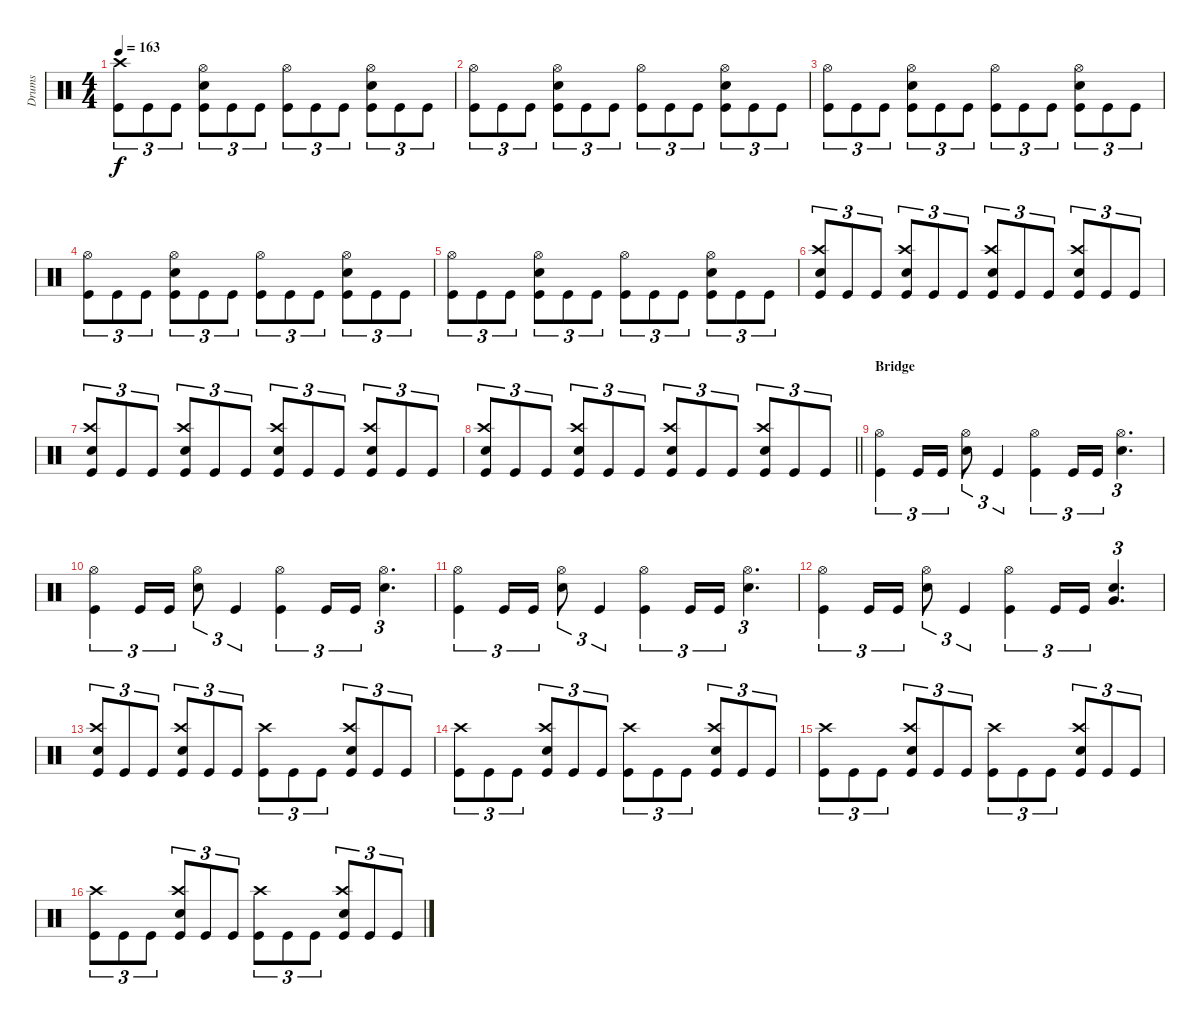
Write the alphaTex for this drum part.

\track ("Drums" "Drums") {instrument percussion}
\staff {score}
\articulation defaults
\ts (4 4)
\tempo 163
\clef neutral
\ks c
("Kick (hit)" "Crash high (hit)").8{tu (3 2) dy f} "Kick (hit)".8{tu (3 2)} "Kick (hit)".8{tu (3 2)} ("Kick (hit)" "Snare (hit) 2" "Hi-Hat (open)").8{tu (3 2)} "Kick (hit)".8{tu (3 2)} "Kick (hit)".8{tu (3 2)} ("Kick (hit)" "Hi-Hat (open)").8{tu (3 2)} "Kick (hit)".8{tu (3 2)} "Kick (hit)".8{tu (3 2)} ("Snare (hit) 2" "Kick (hit)" "Hi-Hat (open)").8{tu (3 2)} "Kick (hit)".8{tu (3 2)} "Kick (hit)".8{tu (3 2)} |
("Kick (hit)" "Hi-Hat (open)").8{tu (3 2)} "Kick (hit)".8{tu (3 2)} "Kick (hit)".8{tu (3 2)} ("Snare (hit) 2" "Kick (hit)" "Hi-Hat (open)").8{tu (3 2)} "Kick (hit)".8{tu (3 2)} "Kick (hit)".8{tu (3 2)} ("Kick (hit)" "Hi-Hat (open)").8{tu (3 2)} "Kick (hit)".8{tu (3 2)} "Kick (hit)".8{tu (3 2)} ("Snare (hit) 2" "Kick (hit)" "Hi-Hat (open)").8{tu (3 2)} "Kick (hit)".8{tu (3 2)} "Kick (hit)".8{tu (3 2)} |
("Kick (hit)" "Hi-Hat (open)").8{tu (3 2)} "Kick (hit)".8{tu (3 2)} "Kick (hit)".8{tu (3 2)} ("Snare (hit) 2" "Kick (hit)" "Hi-Hat (open)").8{tu (3 2)} "Kick (hit)".8{tu (3 2)} "Kick (hit)".8{tu (3 2)} ("Kick (hit)" "Hi-Hat (open)").8{tu (3 2)} "Kick (hit)".8{tu (3 2)} "Kick (hit)".8{tu (3 2)} ("Snare (hit) 2" "Kick (hit)" "Hi-Hat (open)").8{tu (3 2)} "Kick (hit)".8{tu (3 2)} "Kick (hit)".8{tu (3 2)} |
("Kick (hit)" "Hi-Hat (open)").8{tu (3 2)} "Kick (hit)".8{tu (3 2)} "Kick (hit)".8{tu (3 2)} ("Snare (hit) 2" "Kick (hit)" "Hi-Hat (open)").8{tu (3 2)} "Kick (hit)".8{tu (3 2)} "Kick (hit)".8{tu (3 2)} ("Kick (hit)" "Hi-Hat (open)").8{tu (3 2)} "Kick (hit)".8{tu (3 2)} "Kick (hit)".8{tu (3 2)} ("Snare (hit) 2" "Kick (hit)" "Hi-Hat (open)").8{tu (3 2)} "Kick (hit)".8{tu (3 2)} "Kick (hit)".8{tu (3 2)} |
("Kick (hit)" "Hi-Hat (open)").8{tu (3 2)} "Kick (hit)".8{tu (3 2)} "Kick (hit)".8{tu (3 2)} ("Snare (hit) 2" "Kick (hit)" "Hi-Hat (open)").8{tu (3 2)} "Kick (hit)".8{tu (3 2)} "Kick (hit)".8{tu (3 2)} ("Kick (hit)" "Hi-Hat (open)").8{tu (3 2)} "Kick (hit)".8{tu (3 2)} "Kick (hit)".8{tu (3 2)} ("Snare (hit) 2" "Kick (hit)" "Hi-Hat (open)").8{tu (3 2)} "Kick (hit)".8{tu (3 2)} "Kick (hit)".8{tu (3 2)} |
("Snare (hit) 2" "Kick (hit)" "Crash high (hit)").8{tu (3 2)} "Kick (hit)".8{tu (3 2)} "Kick (hit)".8{tu (3 2)} ("Snare (hit) 2" "Kick (hit)" "Crash high (hit)").8{tu (3 2)} "Kick (hit)".8{tu (3 2)} "Kick (hit)".8{tu (3 2)} ("Snare (hit) 2" "Kick (hit)" "Crash high (hit)").8{tu (3 2)} "Kick (hit)".8{tu (3 2)} "Kick (hit)".8{tu (3 2)} ("Snare (hit) 2" "Kick (hit)" "Crash high (hit)").8{tu (3 2)} "Kick (hit)".8{tu (3 2)} "Kick (hit)".8{tu (3 2)} |
("Snare (hit) 2" "Kick (hit)" "Crash high (hit)").8{tu (3 2)} "Kick (hit)".8{tu (3 2)} "Kick (hit)".8{tu (3 2)} ("Snare (hit) 2" "Kick (hit)" "Crash high (hit)").8{tu (3 2)} "Kick (hit)".8{tu (3 2)} "Kick (hit)".8{tu (3 2)} ("Snare (hit) 2" "Kick (hit)" "Crash high (hit)").8{tu (3 2)} "Kick (hit)".8{tu (3 2)} "Kick (hit)".8{tu (3 2)} ("Snare (hit) 2" "Kick (hit)" "Crash high (hit)").8{tu (3 2)} "Kick (hit)".8{tu (3 2)} "Kick (hit)".8{tu (3 2)} |
\barLineRight lightlight
("Snare (hit) 2" "Kick (hit)" "Crash high (hit)").8{tu (3 2)} "Kick (hit)".8{tu (3 2)} "Kick (hit)".8{tu (3 2)} ("Snare (hit) 2" "Kick (hit)" "Crash high (hit)").8{tu (3 2)} "Kick (hit)".8{tu (3 2)} "Kick (hit)".8{tu (3 2)} ("Snare (hit) 2" "Kick (hit)" "Crash high (hit)").8{tu (3 2)} "Kick (hit)".8{tu (3 2)} "Kick (hit)".8{tu (3 2)} ("Snare (hit) 2" "Kick (hit)" "Crash high (hit)").8{tu (3 2)} "Kick (hit)".8{tu (3 2)} "Kick (hit)".8{tu (3 2)} |
\section ("" "Bridge")
("Kick (hit)" "Hi-Hat (open)").4{tu (3 2)} "Kick (hit)".16{tu (3 2)} "Kick (hit)".16{tu (3 2)} ("Snare (hit) 2" "Hi-Hat (open)").8{tu (3 2)} "Kick (hit)".4{tu (3 2)} ("Kick (hit)" "Hi-Hat (open)").4{tu (3 2)} "Kick (hit)".16{tu (3 2)} "Kick (hit)".16{tu (3 2)} ("Snare (hit) 2" "Hi-Hat (open)").4{d tu (3 2)} |
("Kick (hit)" "Hi-Hat (open)").4{tu (3 2)} "Kick (hit)".16{tu (3 2)} "Kick (hit)".16{tu (3 2)} ("Snare (hit) 2" "Hi-Hat (open)").8{tu (3 2)} "Kick (hit)".4{tu (3 2)} ("Kick (hit)" "Hi-Hat (open)").4{tu (3 2)} "Kick (hit)".16{tu (3 2)} "Kick (hit)".16{tu (3 2)} ("Snare (hit) 2" "Hi-Hat (open)").4{d tu (3 2)} |
("Kick (hit)" "Hi-Hat (open)").4{tu (3 2)} "Kick (hit)".16{tu (3 2)} "Kick (hit)".16{tu (3 2)} ("Snare (hit) 2" "Hi-Hat (open)").8{tu (3 2)} "Kick (hit)".4{tu (3 2)} ("Kick (hit)" "Hi-Hat (open)").4{tu (3 2)} "Kick (hit)".16{tu (3 2)} "Kick (hit)".16{tu (3 2)} ("Snare (hit) 2" "Hi-Hat (open)").4{d tu (3 2)} |
("Kick (hit)" "Hi-Hat (open)").4{tu (3 2)} "Kick (hit)".16{tu (3 2)} "Kick (hit)".16{tu (3 2)} ("Snare (hit) 2" "Hi-Hat (open)").8{tu (3 2)} "Kick (hit)".4{tu (3 2)} ("Kick (hit)" "Hi-Hat (open)").4{tu (3 2)} "Kick (hit)".16{tu (3 2)} "Kick (hit)".16{tu (3 2)} ("Snare (hit) 2" "Very Low Tom (hit)").4{d tu (3 2)} |
("Snare (hit) 2" "Kick (hit)" "Crash high (hit)").8{tu (3 2)} "Kick (hit)".8{tu (3 2)} "Kick (hit)".8{tu (3 2)} ("Snare (hit) 2" "Kick (hit)" "Crash high (hit)").8{tu (3 2)} "Kick (hit)".8{tu (3 2)} "Kick (hit)".8{tu (3 2)} ("Kick (hit)" "Crash high (hit)").8{tu (3 2)} "Kick (hit)".8{tu (3 2)} "Kick (hit)".8{tu (3 2)} ("Snare (hit) 2" "Kick (hit)" "Crash high (hit)").8{tu (3 2)} "Kick (hit)".8{tu (3 2)} "Kick (hit)".8{tu (3 2)} |
("Kick (hit)" "Crash high (hit)").8{tu (3 2)} "Kick (hit)".8{tu (3 2)} "Kick (hit)".8{tu (3 2)} ("Snare (hit) 2" "Kick (hit)" "Crash high (hit)").8{tu (3 2)} "Kick (hit)".8{tu (3 2)} "Kick (hit)".8{tu (3 2)} ("Kick (hit)" "Crash high (hit)").8{tu (3 2)} "Kick (hit)".8{tu (3 2)} "Kick (hit)".8{tu (3 2)} ("Snare (hit) 2" "Kick (hit)" "Crash high (hit)").8{tu (3 2)} "Kick (hit)".8{tu (3 2)} "Kick (hit)".8{tu (3 2)} |
("Kick (hit)" "Crash high (hit)").8{tu (3 2)} "Kick (hit)".8{tu (3 2)} "Kick (hit)".8{tu (3 2)} ("Snare (hit) 2" "Kick (hit)" "Crash high (hit)").8{tu (3 2)} "Kick (hit)".8{tu (3 2)} "Kick (hit)".8{tu (3 2)} ("Kick (hit)" "Crash high (hit)").8{tu (3 2)} "Kick (hit)".8{tu (3 2)} "Kick (hit)".8{tu (3 2)} ("Snare (hit) 2" "Kick (hit)" "Crash high (hit)").8{tu (3 2)} "Kick (hit)".8{tu (3 2)} "Kick (hit)".8{tu (3 2)} |
("Kick (hit)" "Crash high (hit)").8{tu (3 2)} "Kick (hit)".8{tu (3 2)} "Kick (hit)".8{tu (3 2)} ("Snare (hit) 2" "Kick (hit)" "Crash high (hit)").8{tu (3 2)} "Kick (hit)".8{tu (3 2)} "Kick (hit)".8{tu (3 2)} ("Kick (hit)" "Crash high (hit)").8{tu (3 2)} "Kick (hit)".8{tu (3 2)} "Kick (hit)".8{tu (3 2)} ("Snare (hit) 2" "Kick (hit)" "Crash high (hit)").8{tu (3 2)} "Kick (hit)".8{tu (3 2)} "Kick (hit)".8{tu (3 2)}
